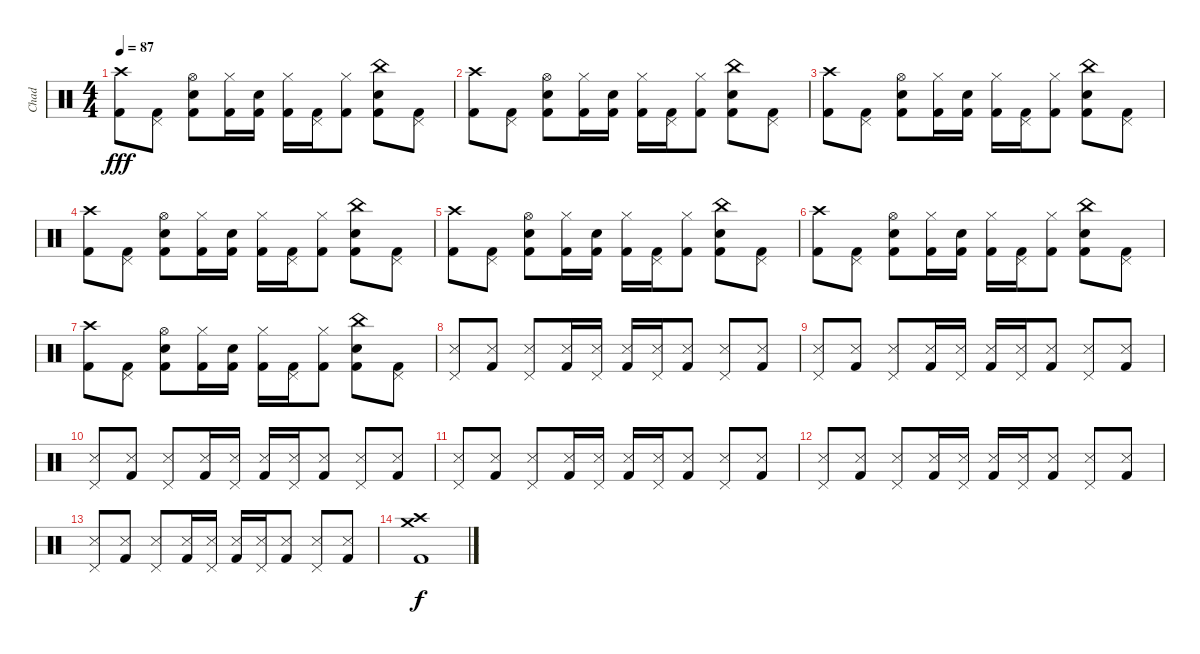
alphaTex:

\track ("Chad" "Chad") {instrument percussion}
\staff {score}
\articulation defaults
\ts (4 4)
\tempo 87
\clef neutral
\ks c
("Crash high (hit)" "Kick (hit) 2").8{dy fff} ("Pedal Hi-Hat (hit)" "Kick (hit) 2").8 ("Hi-Hat (open)" "Snare (hit) 2" "Kick (hit) 2").8 ("Hi-Hat (closed)" "Kick (hit) 2").16 ("Snare (hit) 2" "Kick (hit) 2").16 ("Hi-Hat (closed)" "Kick (hit) 2").16 ("Pedal Hi-Hat (hit)" "Kick (hit) 2").16 ("Hi-Hat (closed)" "Kick (hit) 2").8 ("China (hit)" "Snare (hit) 2" "Kick (hit) 2").8 ("Pedal Hi-Hat (hit)" "Kick (hit) 2").8 |
("Crash high (hit)" "Kick (hit) 2").8 ("Pedal Hi-Hat (hit)" "Kick (hit) 2").8 ("Hi-Hat (open)" "Snare (hit) 2" "Kick (hit) 2").8 ("Hi-Hat (closed)" "Kick (hit) 2").16 ("Snare (hit) 2" "Kick (hit) 2").16 ("Hi-Hat (closed)" "Kick (hit) 2").16 ("Pedal Hi-Hat (hit)" "Kick (hit) 2").16 ("Hi-Hat (closed)" "Kick (hit) 2").8 ("China (hit)" "Snare (hit) 2" "Kick (hit) 2").8 ("Pedal Hi-Hat (hit)" "Kick (hit) 2").8 |
("Crash high (hit)" "Kick (hit) 2").8 ("Pedal Hi-Hat (hit)" "Kick (hit) 2").8 ("Hi-Hat (open)" "Snare (hit) 2" "Kick (hit) 2").8 ("Hi-Hat (closed)" "Kick (hit) 2").16 ("Snare (hit) 2" "Kick (hit) 2").16 ("Hi-Hat (closed)" "Kick (hit) 2").16 ("Pedal Hi-Hat (hit)" "Kick (hit) 2").16 ("Hi-Hat (closed)" "Kick (hit) 2").8 ("China (hit)" "Snare (hit) 2" "Kick (hit) 2").8 ("Pedal Hi-Hat (hit)" "Kick (hit) 2").8 |
("Crash high (hit)" "Kick (hit) 2").8 ("Pedal Hi-Hat (hit)" "Kick (hit) 2").8 ("Hi-Hat (open)" "Snare (hit) 2" "Kick (hit) 2").8 ("Hi-Hat (closed)" "Kick (hit) 2").16 ("Snare (hit) 2" "Kick (hit) 2").16 ("Hi-Hat (closed)" "Kick (hit) 2").16 ("Pedal Hi-Hat (hit)" "Kick (hit) 2").16 ("Hi-Hat (closed)" "Kick (hit) 2").8 ("China (hit)" "Snare (hit) 2" "Kick (hit) 2").8 ("Pedal Hi-Hat (hit)" "Kick (hit) 2").8 |
("Crash high (hit)" "Kick (hit) 2").8 ("Pedal Hi-Hat (hit)" "Kick (hit) 2").8 ("Hi-Hat (open)" "Snare (hit) 2" "Kick (hit) 2").8 ("Hi-Hat (closed)" "Kick (hit) 2").16 ("Snare (hit) 2" "Kick (hit) 2").16 ("Hi-Hat (closed)" "Kick (hit) 2").16 ("Pedal Hi-Hat (hit)" "Kick (hit) 2").16 ("Hi-Hat (closed)" "Kick (hit) 2").8 ("China (hit)" "Snare (hit) 2" "Kick (hit) 2").8 ("Pedal Hi-Hat (hit)" "Kick (hit) 2").8 |
("Crash high (hit)" "Kick (hit) 2").8 ("Pedal Hi-Hat (hit)" "Kick (hit) 2").8 ("Hi-Hat (open)" "Snare (hit) 2" "Kick (hit) 2").8 ("Hi-Hat (closed)" "Kick (hit) 2").16 ("Snare (hit) 2" "Kick (hit) 2").16 ("Hi-Hat (closed)" "Kick (hit) 2").16 ("Pedal Hi-Hat (hit)" "Kick (hit) 2").16 ("Hi-Hat (closed)" "Kick (hit) 2").8 ("China (hit)" "Snare (hit) 2" "Kick (hit) 2").8 ("Pedal Hi-Hat (hit)" "Kick (hit) 2").8 |
("Crash high (hit)" "Kick (hit) 2").8 ("Pedal Hi-Hat (hit)" "Kick (hit) 2").8 ("Hi-Hat (open)" "Snare (hit) 2" "Kick (hit) 2").8 ("Hi-Hat (closed)" "Kick (hit) 2").16 ("Snare (hit) 2" "Kick (hit) 2").16 ("Hi-Hat (closed)" "Kick (hit) 2").16 ("Pedal Hi-Hat (hit)" "Kick (hit) 2").16 ("Hi-Hat (closed)" "Kick (hit) 2").8 ("China (hit)" "Snare (hit) 2" "Kick (hit) 2").8 ("Pedal Hi-Hat (hit)" "Kick (hit) 2").8 |
("Snare (side stick) 3" "Pedal Hi-Hat (hit)").8{volume 7} ("Snare (side stick) 3" "Kick (hit) 2").8 ("Snare (side stick) 3" "Pedal Hi-Hat (hit)").8 ("Snare (side stick) 3" "Kick (hit) 2").16 ("Snare (side stick) 3" "Pedal Hi-Hat (hit)").16 ("Snare (side stick) 3" "Kick (hit) 2").16 ("Snare (side stick) 3" "Pedal Hi-Hat (hit)").16 ("Snare (side stick) 3" "Kick (hit) 2").8 ("Snare (side stick) 3" "Pedal Hi-Hat (hit)").8 ("Snare (side stick) 3" "Kick (hit) 2").8 |
("Snare (side stick) 3" "Pedal Hi-Hat (hit)").8 ("Snare (side stick) 3" "Kick (hit) 2").8 ("Snare (side stick) 3" "Pedal Hi-Hat (hit)").8 ("Snare (side stick) 3" "Kick (hit) 2").16 ("Snare (side stick) 3" "Pedal Hi-Hat (hit)").16 ("Snare (side stick) 3" "Kick (hit) 2").16 ("Snare (side stick) 3" "Pedal Hi-Hat (hit)").16 ("Snare (side stick) 3" "Kick (hit) 2").8 ("Snare (side stick) 3" "Pedal Hi-Hat (hit)").8 ("Snare (side stick) 3" "Kick (hit) 2").8 |
("Snare (side stick) 3" "Pedal Hi-Hat (hit)").8 ("Snare (side stick) 3" "Kick (hit) 2").8 ("Snare (side stick) 3" "Pedal Hi-Hat (hit)").8 ("Snare (side stick) 3" "Kick (hit) 2").16 ("Snare (side stick) 3" "Pedal Hi-Hat (hit)").16 ("Snare (side stick) 3" "Kick (hit) 2").16 ("Snare (side stick) 3" "Pedal Hi-Hat (hit)").16 ("Snare (side stick) 3" "Kick (hit) 2").8 ("Snare (side stick) 3" "Pedal Hi-Hat (hit)").8 ("Snare (side stick) 3" "Kick (hit) 2").8 |
("Snare (side stick) 3" "Pedal Hi-Hat (hit)").8 ("Snare (side stick) 3" "Kick (hit) 2").8 ("Snare (side stick) 3" "Pedal Hi-Hat (hit)").8 ("Snare (side stick) 3" "Kick (hit) 2").16 ("Snare (side stick) 3" "Pedal Hi-Hat (hit)").16 ("Snare (side stick) 3" "Kick (hit) 2").16 ("Snare (side stick) 3" "Pedal Hi-Hat (hit)").16 ("Snare (side stick) 3" "Kick (hit) 2").8 ("Snare (side stick) 3" "Pedal Hi-Hat (hit)").8 ("Snare (side stick) 3" "Kick (hit) 2").8 |
("Snare (side stick) 3" "Pedal Hi-Hat (hit)").8 ("Snare (side stick) 3" "Kick (hit) 2").8 ("Snare (side stick) 3" "Pedal Hi-Hat (hit)").8 ("Snare (side stick) 3" "Kick (hit) 2").16 ("Snare (side stick) 3" "Pedal Hi-Hat (hit)").16 ("Snare (side stick) 3" "Kick (hit) 2").16 ("Snare (side stick) 3" "Pedal Hi-Hat (hit)").16 ("Snare (side stick) 3" "Kick (hit) 2").8 ("Snare (side stick) 3" "Pedal Hi-Hat (hit)").8 ("Snare (side stick) 3" "Kick (hit) 2").8 |
("Snare (side stick) 3" "Pedal Hi-Hat (hit)").8 ("Snare (side stick) 3" "Kick (hit) 2").8 ("Snare (side stick) 3" "Pedal Hi-Hat (hit)").8 ("Snare (side stick) 3" "Kick (hit) 2").16 ("Snare (side stick) 3" "Pedal Hi-Hat (hit)").16 ("Snare (side stick) 3" "Kick (hit) 2").16 ("Snare (side stick) 3" "Pedal Hi-Hat (hit)").16 ("Snare (side stick) 3" "Kick (hit) 2").8 ("Snare (side stick) 3" "Pedal Hi-Hat (hit)").8 ("Snare (side stick) 3" "Kick (hit) 2").8 |
("Crash medium (hit)" "Crash high (hit)" "Kick (hit) 2").1{dy f}
